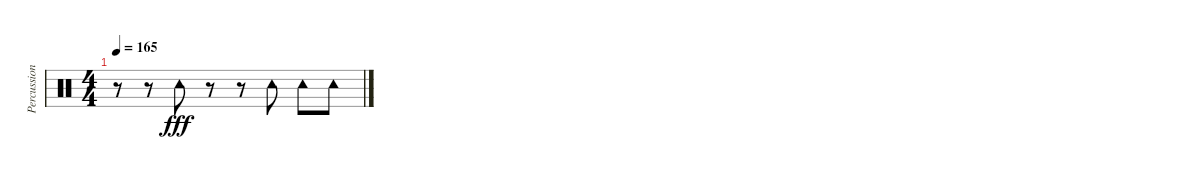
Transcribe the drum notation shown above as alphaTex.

\track ("Percussion/Fills" "Percussion") {instrument percussion}
\staff {score}
\articulation defaults
\ts (4 4)
\tempo 165
\clef neutral
\ks c
r.8{dy fff} r.8 "Tambourine (hit)".8 r.8 r.8 "Tambourine (hit)".8 "Tambourine (hit)".8 "Tambourine (hit)".8
